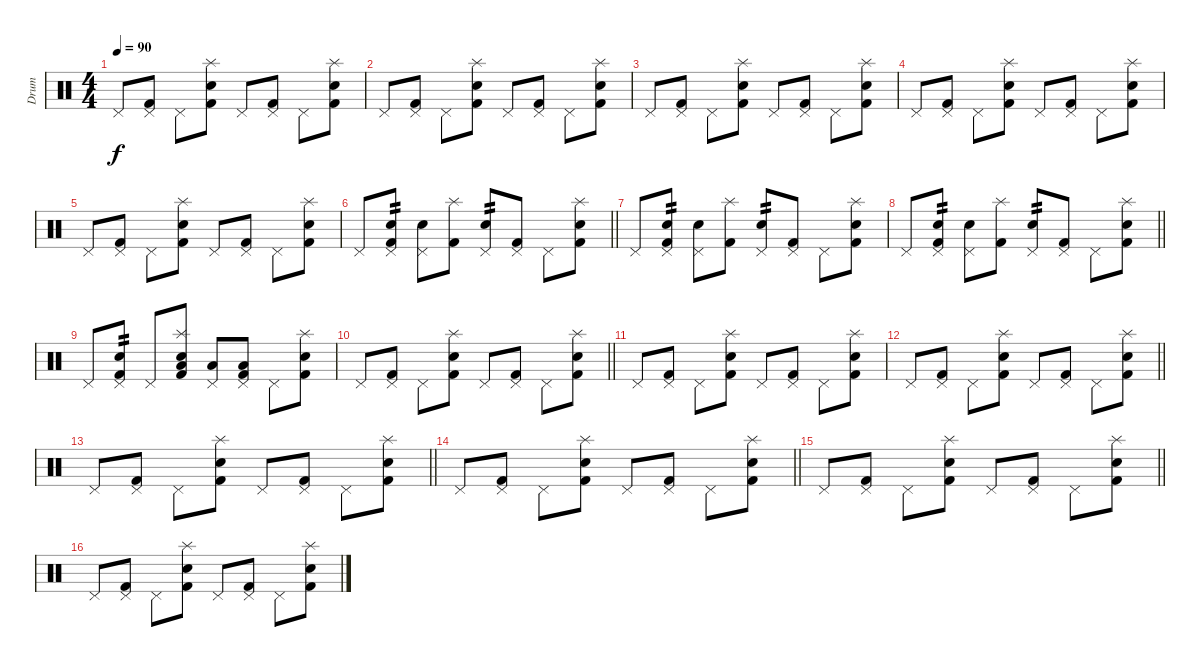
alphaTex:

\track ("Drum" "Drum") {instrument percussion}
\staff {score}
\articulation defaults
\ts (4 4)
\tempo 90
\clef neutral
\ks c "Pedal Hi-Hat (hit)".8{dy f}
("Kick (hit) 2" "Pedal Hi-Hat (hit)").8 "Pedal Hi-Hat (hit)".8 ("Electric Snare (hit)" "Kick (hit) 2" "Splash (hit)").8 "Pedal Hi-Hat (hit)".8 ("Kick (hit) 2" "Pedal Hi-Hat (hit)").8 "Pedal Hi-Hat (hit)".8 ("Electric Snare (hit)" "Kick (hit) 2" "Splash (hit)").8 |
"Pedal Hi-Hat (hit)".8 ("Kick (hit) 2" "Pedal Hi-Hat (hit)").8 "Pedal Hi-Hat (hit)".8 ("Electric Snare (hit)" "Kick (hit) 2" "Splash (hit)").8 "Pedal Hi-Hat (hit)".8 ("Kick (hit) 2" "Pedal Hi-Hat (hit)").8 "Pedal Hi-Hat (hit)".8 ("Electric Snare (hit)" "Kick (hit) 2" "Splash (hit)").8 |
"Pedal Hi-Hat (hit)".8 ("Kick (hit) 2" "Pedal Hi-Hat (hit)").8 "Pedal Hi-Hat (hit)".8 ("Electric Snare (hit)" "Kick (hit) 2" "Splash (hit)").8 "Pedal Hi-Hat (hit)".8 ("Kick (hit) 2" "Pedal Hi-Hat (hit)").8 "Pedal Hi-Hat (hit)".8 ("Electric Snare (hit)" "Kick (hit) 2" "Splash (hit)").8 |
"Pedal Hi-Hat (hit)".8 ("Kick (hit) 2" "Pedal Hi-Hat (hit)").8 "Pedal Hi-Hat (hit)".8 ("Electric Snare (hit)" "Kick (hit) 2" "Splash (hit)").8 "Pedal Hi-Hat (hit)".8 ("Kick (hit) 2" "Pedal Hi-Hat (hit)").8 "Pedal Hi-Hat (hit)".8 ("Electric Snare (hit)" "Kick (hit) 2" "Splash (hit)").8 |
"Pedal Hi-Hat (hit)".8 ("Kick (hit) 2" "Pedal Hi-Hat (hit)").8 "Pedal Hi-Hat (hit)".8 ("Electric Snare (hit)" "Kick (hit) 2" "Splash (hit)").8 "Pedal Hi-Hat (hit)".8 ("Kick (hit) 2" "Pedal Hi-Hat (hit)").8 "Pedal Hi-Hat (hit)".8 ("Electric Snare (hit)" "Kick (hit) 2" "Splash (hit)").8 |
\barLineRight lightlight "Pedal Hi-Hat (hit)".8
("Electric Snare (hit)" "Kick (hit) 2" "Pedal Hi-Hat (hit)").8{tp 2} ("Electric Snare (hit)" "Pedal Hi-Hat (hit)").8 ("Kick (hit) 2" "Splash (hit)").8 ("Electric Snare (hit)" "Pedal Hi-Hat (hit)").8{tp 2} ("Kick (hit) 2" "Pedal Hi-Hat (hit)").8 "Pedal Hi-Hat (hit)".8 ("Electric Snare (hit)" "Kick (hit) 2" "Splash (hit)").8 |
"Pedal Hi-Hat (hit)".8 ("Electric Snare (hit)" "Kick (hit) 2" "Pedal Hi-Hat (hit)").8{tp 2} ("Electric Snare (hit)" "Pedal Hi-Hat (hit)").8 ("Kick (hit) 2" "Splash (hit)").8 ("Electric Snare (hit)" "Pedal Hi-Hat (hit)").8{tp 2} ("Kick (hit) 2" "Pedal Hi-Hat (hit)").8 "Pedal Hi-Hat (hit)".8 ("Electric Snare (hit)" "Kick (hit) 2" "Splash (hit)").8 |
\barLineRight lightlight "Pedal Hi-Hat (hit)".8
("Electric Snare (hit)" "Kick (hit) 2" "Pedal Hi-Hat (hit)").8{tp 2} ("Electric Snare (hit)" "Pedal Hi-Hat (hit)").8 ("Kick (hit) 2" "Splash (hit)").8 ("Electric Snare (hit)" "Pedal Hi-Hat (hit)").8{tp 2} ("Kick (hit) 2" "Pedal Hi-Hat (hit)").8 "Pedal Hi-Hat (hit)".8 ("Electric Snare (hit)" "Kick (hit) 2" "Splash (hit)").8 |
"Pedal Hi-Hat (hit)".8 ("Electric Snare (hit)" "Kick (hit) 2" "Pedal Hi-Hat (hit)").8{tp 2} "Pedal Hi-Hat (hit)".8 ("Electric Snare (hit)" "Low Tom (hit)" "Kick (hit) 2" "Splash (hit)").8 ("Low Tom (hit)" "Pedal Hi-Hat (hit)").8 ("Low Tom (hit)" "Kick (hit) 2" "Pedal Hi-Hat (hit)").8 "Pedal Hi-Hat (hit)".8 ("Electric Snare (hit)" "Kick (hit) 2" "Splash (hit)").8 |
\barLineRight lightlight "Pedal Hi-Hat (hit)".8
("Kick (hit) 2" "Pedal Hi-Hat (hit)").8 "Pedal Hi-Hat (hit)".8 ("Electric Snare (hit)" "Kick (hit) 2" "Splash (hit)").8 "Pedal Hi-Hat (hit)".8 ("Kick (hit) 2" "Pedal Hi-Hat (hit)").8 "Pedal Hi-Hat (hit)".8 ("Electric Snare (hit)" "Kick (hit) 2" "Splash (hit)").8 |
"Pedal Hi-Hat (hit)".8 ("Kick (hit) 2" "Pedal Hi-Hat (hit)").8 "Pedal Hi-Hat (hit)".8 ("Electric Snare (hit)" "Kick (hit) 2" "Splash (hit)").8 "Pedal Hi-Hat (hit)".8 ("Kick (hit) 2" "Pedal Hi-Hat (hit)").8 "Pedal Hi-Hat (hit)".8 ("Electric Snare (hit)" "Kick (hit) 2" "Splash (hit)").8 |
\barLineRight lightlight "Pedal Hi-Hat (hit)".8
("Kick (hit) 2" "Pedal Hi-Hat (hit)").8 "Pedal Hi-Hat (hit)".8 ("Electric Snare (hit)" "Kick (hit) 2" "Splash (hit)").8 "Pedal Hi-Hat (hit)".8 ("Kick (hit) 2" "Pedal Hi-Hat (hit)").8 "Pedal Hi-Hat (hit)".8 ("Electric Snare (hit)" "Kick (hit) 2" "Splash (hit)").8 |
\barLineRight lightlight "Pedal Hi-Hat (hit)".8
("Kick (hit) 2" "Pedal Hi-Hat (hit)").8 "Pedal Hi-Hat (hit)".8 ("Electric Snare (hit)" "Kick (hit) 2" "Splash (hit)").8 "Pedal Hi-Hat (hit)".8 ("Kick (hit) 2" "Pedal Hi-Hat (hit)").8 "Pedal Hi-Hat (hit)".8 ("Electric Snare (hit)" "Kick (hit) 2" "Splash (hit)").8 |
\barLineRight lightlight "Pedal Hi-Hat (hit)".8
("Kick (hit) 2" "Pedal Hi-Hat (hit)").8 "Pedal Hi-Hat (hit)".8 ("Electric Snare (hit)" "Kick (hit) 2" "Splash (hit)").8 "Pedal Hi-Hat (hit)".8 ("Kick (hit) 2" "Pedal Hi-Hat (hit)").8 "Pedal Hi-Hat (hit)".8 ("Electric Snare (hit)" "Kick (hit) 2" "Splash (hit)").8 |
\barLineRight lightlight "Pedal Hi-Hat (hit)".8
("Kick (hit) 2" "Pedal Hi-Hat (hit)").8 "Pedal Hi-Hat (hit)".8 ("Electric Snare (hit)" "Kick (hit) 2" "Splash (hit)").8 "Pedal Hi-Hat (hit)".8 ("Kick (hit) 2" "Pedal Hi-Hat (hit)").8 "Pedal Hi-Hat (hit)".8 ("Electric Snare (hit)" "Kick (hit) 2" "Splash (hit)").8 |
"Pedal Hi-Hat (hit)".8 ("Kick (hit) 2" "Pedal Hi-Hat (hit)").8 "Pedal Hi-Hat (hit)".8 ("Electric Snare (hit)" "Kick (hit) 2" "Splash (hit)").8 "Pedal Hi-Hat (hit)".8 ("Kick (hit) 2" "Pedal Hi-Hat (hit)").8 "Pedal Hi-Hat (hit)".8 ("Electric Snare (hit)" "Kick (hit) 2" "Splash (hit)").8
